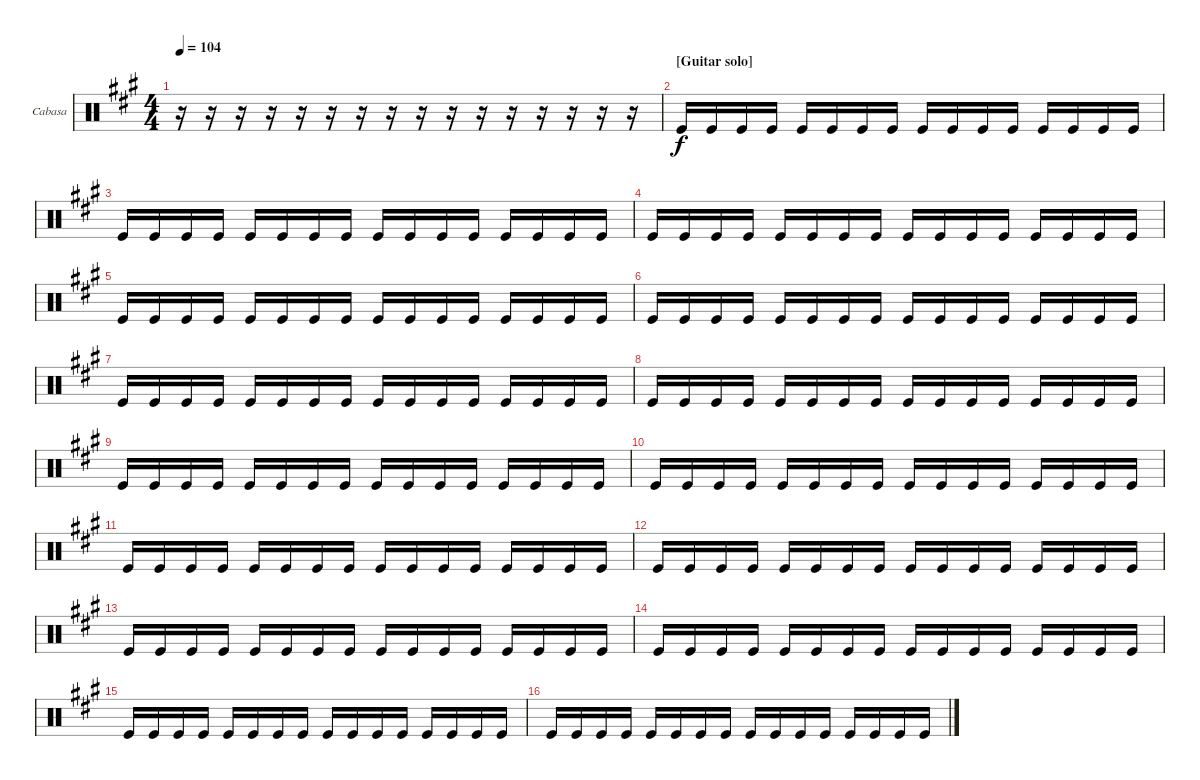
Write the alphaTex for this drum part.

\bracketExtendMode groupsimilarinstruments
\firstSystemTrackNameOrientation horizontal
\otherSystemsTrackNameOrientation horizontal
\track ("Cabasa" "Cabasa") {instrument percussion}
\staff {score}
\articulation defaults
\ts (4 4)
\tempo 104
\clef neutral
\ks a
r.16{dy f} r.16 r.16 r.16 r.16 r.16 r.16 r.16 r.16 r.16 r.16 r.16 r.16 r.16 r.16 r.16 |
\section ("" "[Guitar solo]")
"Kick (hit)".16 "Kick (hit)".16 "Kick (hit)".16 "Kick (hit)".16 "Kick (hit)".16 "Kick (hit)".16 "Kick (hit)".16 "Kick (hit)".16 "Kick (hit)".16 "Kick (hit)".16 "Kick (hit)".16 "Kick (hit)".16 "Kick (hit)".16 "Kick (hit)".16 "Kick (hit)".16 "Kick (hit)".16 |
"Kick (hit)".16 "Kick (hit)".16 "Kick (hit)".16 "Kick (hit)".16 "Kick (hit)".16 "Kick (hit)".16 "Kick (hit)".16 "Kick (hit)".16 "Kick (hit)".16 "Kick (hit)".16 "Kick (hit)".16 "Kick (hit)".16 "Kick (hit)".16 "Kick (hit)".16 "Kick (hit)".16 "Kick (hit)".16 |
"Kick (hit)".16 "Kick (hit)".16 "Kick (hit)".16 "Kick (hit)".16 "Kick (hit)".16 "Kick (hit)".16 "Kick (hit)".16 "Kick (hit)".16 "Kick (hit)".16 "Kick (hit)".16 "Kick (hit)".16 "Kick (hit)".16 "Kick (hit)".16 "Kick (hit)".16 "Kick (hit)".16 "Kick (hit)".16 |
"Kick (hit)".16 "Kick (hit)".16 "Kick (hit)".16 "Kick (hit)".16 "Kick (hit)".16 "Kick (hit)".16 "Kick (hit)".16 "Kick (hit)".16 "Kick (hit)".16 "Kick (hit)".16 "Kick (hit)".16 "Kick (hit)".16 "Kick (hit)".16 "Kick (hit)".16 "Kick (hit)".16 "Kick (hit)".16 |
"Kick (hit)".16 "Kick (hit)".16 "Kick (hit)".16 "Kick (hit)".16 "Kick (hit)".16 "Kick (hit)".16 "Kick (hit)".16 "Kick (hit)".16 "Kick (hit)".16 "Kick (hit)".16 "Kick (hit)".16 "Kick (hit)".16 "Kick (hit)".16 "Kick (hit)".16 "Kick (hit)".16 "Kick (hit)".16 |
"Kick (hit)".16 "Kick (hit)".16 "Kick (hit)".16 "Kick (hit)".16 "Kick (hit)".16 "Kick (hit)".16 "Kick (hit)".16 "Kick (hit)".16 "Kick (hit)".16 "Kick (hit)".16 "Kick (hit)".16 "Kick (hit)".16 "Kick (hit)".16 "Kick (hit)".16 "Kick (hit)".16 "Kick (hit)".16 |
"Kick (hit)".16 "Kick (hit)".16 "Kick (hit)".16 "Kick (hit)".16 "Kick (hit)".16 "Kick (hit)".16 "Kick (hit)".16 "Kick (hit)".16 "Kick (hit)".16 "Kick (hit)".16 "Kick (hit)".16 "Kick (hit)".16 "Kick (hit)".16 "Kick (hit)".16 "Kick (hit)".16 "Kick (hit)".16 |
"Kick (hit)".16 "Kick (hit)".16 "Kick (hit)".16 "Kick (hit)".16 "Kick (hit)".16 "Kick (hit)".16 "Kick (hit)".16 "Kick (hit)".16 "Kick (hit)".16 "Kick (hit)".16 "Kick (hit)".16 "Kick (hit)".16 "Kick (hit)".16 "Kick (hit)".16 "Kick (hit)".16 "Kick (hit)".16 |
"Kick (hit)".16 "Kick (hit)".16 "Kick (hit)".16 "Kick (hit)".16 "Kick (hit)".16 "Kick (hit)".16 "Kick (hit)".16 "Kick (hit)".16 "Kick (hit)".16 "Kick (hit)".16 "Kick (hit)".16 "Kick (hit)".16 "Kick (hit)".16 "Kick (hit)".16 "Kick (hit)".16 "Kick (hit)".16 |
"Kick (hit)".16 "Kick (hit)".16 "Kick (hit)".16 "Kick (hit)".16 "Kick (hit)".16 "Kick (hit)".16 "Kick (hit)".16 "Kick (hit)".16 "Kick (hit)".16 "Kick (hit)".16 "Kick (hit)".16 "Kick (hit)".16 "Kick (hit)".16 "Kick (hit)".16 "Kick (hit)".16 "Kick (hit)".16 |
"Kick (hit)".16 "Kick (hit)".16 "Kick (hit)".16 "Kick (hit)".16 "Kick (hit)".16 "Kick (hit)".16 "Kick (hit)".16 "Kick (hit)".16 "Kick (hit)".16 "Kick (hit)".16 "Kick (hit)".16 "Kick (hit)".16 "Kick (hit)".16 "Kick (hit)".16 "Kick (hit)".16 "Kick (hit)".16 |
"Kick (hit)".16 "Kick (hit)".16 "Kick (hit)".16 "Kick (hit)".16 "Kick (hit)".16 "Kick (hit)".16 "Kick (hit)".16 "Kick (hit)".16 "Kick (hit)".16 "Kick (hit)".16 "Kick (hit)".16 "Kick (hit)".16 "Kick (hit)".16 "Kick (hit)".16 "Kick (hit)".16 "Kick (hit)".16 |
"Kick (hit)".16 "Kick (hit)".16 "Kick (hit)".16 "Kick (hit)".16 "Kick (hit)".16 "Kick (hit)".16 "Kick (hit)".16 "Kick (hit)".16 "Kick (hit)".16 "Kick (hit)".16 "Kick (hit)".16 "Kick (hit)".16 "Kick (hit)".16 "Kick (hit)".16 "Kick (hit)".16 "Kick (hit)".16 |
"Kick (hit)".16 "Kick (hit)".16 "Kick (hit)".16 "Kick (hit)".16 "Kick (hit)".16 "Kick (hit)".16 "Kick (hit)".16 "Kick (hit)".16 "Kick (hit)".16 "Kick (hit)".16 "Kick (hit)".16 "Kick (hit)".16 "Kick (hit)".16 "Kick (hit)".16 "Kick (hit)".16 "Kick (hit)".16 |
"Kick (hit)".16 "Kick (hit)".16 "Kick (hit)".16 "Kick (hit)".16 "Kick (hit)".16 "Kick (hit)".16 "Kick (hit)".16 "Kick (hit)".16 "Kick (hit)".16 "Kick (hit)".16 "Kick (hit)".16 "Kick (hit)".16 "Kick (hit)".16 "Kick (hit)".16 "Kick (hit)".16 "Kick (hit)".16
